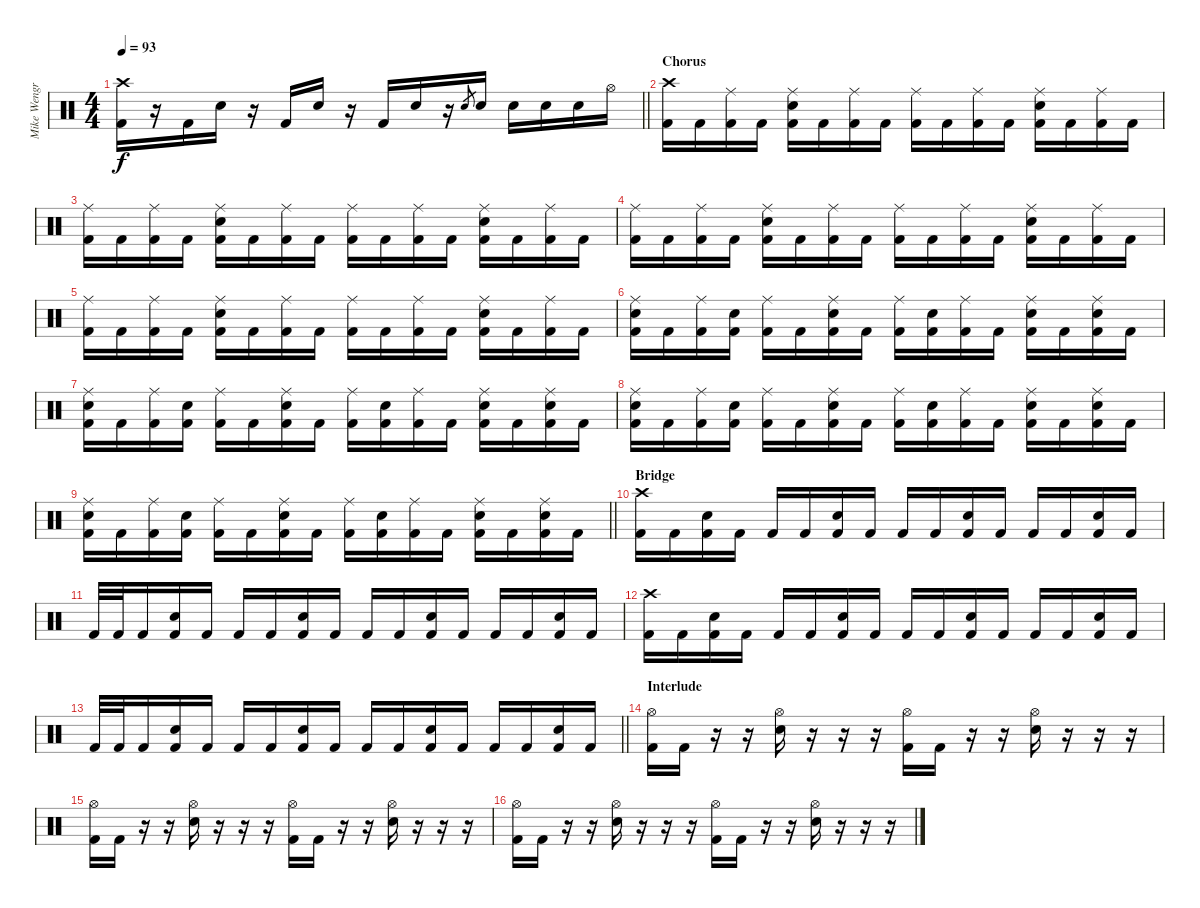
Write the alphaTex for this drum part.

\track ("Mike Wengren" "Mike Wengr") {instrument percussion}
\staff {score}
\articulation defaults
\ts (4 4)
\tempo 93
\clef neutral
\barLineRight lightlight
\ks c
("Crash high (hit)" "Kick (hit) 2").16{dy f} r.16 "Kick (hit) 2".16 "Electric Snare (hit)".16 r.16 "Kick (hit) 2".16 "Electric Snare (hit)".16 r.16 "Kick (hit) 2".16 "Electric Snare (hit)".16 r.16 "Electric Snare (hit)".8{gr} "Electric Snare (hit)".16 "Electric Snare (hit)".16 "Electric Snare (hit)".16 "Electric Snare (hit)".16 "Hi-Hat (open)".16 |
\section ("" "Chorus")
("Crash high (hit)" "Kick (hit) 2").16 "Kick (hit) 2".16 ("Ride (middle)" "Kick (hit) 2").16 "Kick (hit) 2".16 ("Ride (middle)" "Electric Snare (hit)" "Kick (hit) 2").16 "Kick (hit) 2".16 ("Ride (middle)" "Kick (hit) 2").16 "Kick (hit) 2".16 ("Ride (middle)" "Kick (hit) 2").16 "Kick (hit) 2".16 ("Ride (middle)" "Kick (hit) 2").16 "Kick (hit) 2".16 ("Ride (middle)" "Electric Snare (hit)" "Kick (hit) 2").16 "Kick (hit) 2".16 ("Ride (middle)" "Kick (hit) 2").16 "Kick (hit) 2".16 |
("Ride (middle)" "Kick (hit) 2").16 "Kick (hit) 2".16 ("Ride (middle)" "Kick (hit) 2").16 "Kick (hit) 2".16 ("Ride (middle)" "Electric Snare (hit)" "Kick (hit) 2").16 "Kick (hit) 2".16 ("Ride (middle)" "Kick (hit) 2").16 "Kick (hit) 2".16 ("Ride (middle)" "Kick (hit) 2").16 "Kick (hit) 2".16 ("Ride (middle)" "Kick (hit) 2").16 "Kick (hit) 2".16 ("Ride (middle)" "Electric Snare (hit)" "Kick (hit) 2").16 "Kick (hit) 2".16 ("Ride (middle)" "Kick (hit) 2").16 "Kick (hit) 2".16 |
("Ride (middle)" "Kick (hit) 2").16 "Kick (hit) 2".16 ("Ride (middle)" "Kick (hit) 2").16 "Kick (hit) 2".16 ("Ride (middle)" "Electric Snare (hit)" "Kick (hit) 2").16 "Kick (hit) 2".16 ("Ride (middle)" "Kick (hit) 2").16 "Kick (hit) 2".16 ("Ride (middle)" "Kick (hit) 2").16 "Kick (hit) 2".16 ("Ride (middle)" "Kick (hit) 2").16 "Kick (hit) 2".16 ("Ride (middle)" "Electric Snare (hit)" "Kick (hit) 2").16 "Kick (hit) 2".16 ("Ride (middle)" "Kick (hit) 2").16 "Kick (hit) 2".16 |
("Ride (middle)" "Kick (hit) 2").16 "Kick (hit) 2".16 ("Ride (middle)" "Kick (hit) 2").16 "Kick (hit) 2".16 ("Ride (middle)" "Electric Snare (hit)" "Kick (hit) 2").16 "Kick (hit) 2".16 ("Ride (middle)" "Kick (hit) 2").16 "Kick (hit) 2".16 ("Ride (middle)" "Kick (hit) 2").16 "Kick (hit) 2".16 ("Ride (middle)" "Kick (hit) 2").16 "Kick (hit) 2".16 ("Ride (middle)" "Electric Snare (hit)" "Kick (hit) 2").16 "Kick (hit) 2".16 ("Ride (middle)" "Kick (hit) 2").16 "Kick (hit) 2".16 |
("Ride (middle)" "Electric Snare (hit)" "Kick (hit) 2").16 "Kick (hit) 2".16 ("Ride (middle)" "Kick (hit) 2").16 ("Electric Snare (hit)" "Kick (hit) 2").16 ("Ride (middle)" "Kick (hit) 2").16 "Kick (hit) 2".16 ("Ride (middle)" "Electric Snare (hit)" "Kick (hit) 2").16 "Kick (hit) 2".16 ("Ride (middle)" "Kick (hit) 2").16 ("Electric Snare (hit)" "Kick (hit) 2").16 ("Ride (middle)" "Kick (hit) 2").16 "Kick (hit) 2".16 ("Ride (middle)" "Electric Snare (hit)" "Kick (hit) 2").16 "Kick (hit) 2".16 ("Ride (middle)" "Electric Snare (hit)" "Kick (hit) 2").16 "Kick (hit) 2".16 |
("Ride (middle)" "Electric Snare (hit)" "Kick (hit) 2").16 "Kick (hit) 2".16 ("Ride (middle)" "Kick (hit) 2").16 ("Electric Snare (hit)" "Kick (hit) 2").16 ("Ride (middle)" "Kick (hit) 2").16 "Kick (hit) 2".16 ("Ride (middle)" "Electric Snare (hit)" "Kick (hit) 2").16 "Kick (hit) 2".16 ("Ride (middle)" "Kick (hit) 2").16 ("Electric Snare (hit)" "Kick (hit) 2").16 ("Ride (middle)" "Kick (hit) 2").16 "Kick (hit) 2".16 ("Ride (middle)" "Electric Snare (hit)" "Kick (hit) 2").16 "Kick (hit) 2".16 ("Ride (middle)" "Electric Snare (hit)" "Kick (hit) 2").16 "Kick (hit) 2".16 |
("Ride (middle)" "Electric Snare (hit)" "Kick (hit) 2").16 "Kick (hit) 2".16 ("Ride (middle)" "Kick (hit) 2").16 ("Electric Snare (hit)" "Kick (hit) 2").16 ("Ride (middle)" "Kick (hit) 2").16 "Kick (hit) 2".16 ("Ride (middle)" "Electric Snare (hit)" "Kick (hit) 2").16 "Kick (hit) 2".16 ("Ride (middle)" "Kick (hit) 2").16 ("Electric Snare (hit)" "Kick (hit) 2").16 ("Ride (middle)" "Kick (hit) 2").16 "Kick (hit) 2".16 ("Ride (middle)" "Electric Snare (hit)" "Kick (hit) 2").16 "Kick (hit) 2".16 ("Ride (middle)" "Electric Snare (hit)" "Kick (hit) 2").16 "Kick (hit) 2".16 |
\barLineRight lightlight
("Ride (middle)" "Electric Snare (hit)" "Kick (hit) 2").16 "Kick (hit) 2".16 ("Ride (middle)" "Kick (hit) 2").16 ("Electric Snare (hit)" "Kick (hit) 2").16 ("Ride (middle)" "Kick (hit) 2").16 "Kick (hit) 2".16 ("Ride (middle)" "Electric Snare (hit)" "Kick (hit) 2").16 "Kick (hit) 2".16 ("Ride (middle)" "Kick (hit) 2").16 ("Electric Snare (hit)" "Kick (hit) 2").16 ("Ride (middle)" "Kick (hit) 2").16 "Kick (hit) 2".16 ("Ride (middle)" "Electric Snare (hit)" "Kick (hit) 2").16 "Kick (hit) 2".16 ("Ride (middle)" "Electric Snare (hit)" "Kick (hit) 2").16 "Kick (hit) 2".16 |
\section ("" "Bridge")
("Crash high (hit)" "Kick (hit) 2").16 "Kick (hit) 2".16 ("Electric Snare (hit)" "Kick (hit) 2").16 "Kick (hit) 2".16 "Kick (hit) 2".16 "Kick (hit) 2".16 ("Electric Snare (hit)" "Kick (hit) 2").16 "Kick (hit) 2".16 "Kick (hit) 2".16 "Kick (hit) 2".16 ("Electric Snare (hit)" "Kick (hit) 2").16 "Kick (hit) 2".16 "Kick (hit) 2".16 "Kick (hit) 2".16 ("Electric Snare (hit)" "Kick (hit) 2").16 "Kick (hit) 2".16 |
"Kick (hit) 2".32 "Kick (hit) 2".32 "Kick (hit) 2".16 ("Electric Snare (hit)" "Kick (hit) 2").16 "Kick (hit) 2".16 "Kick (hit) 2".16 "Kick (hit) 2".16 ("Electric Snare (hit)" "Kick (hit) 2").16 "Kick (hit) 2".16 "Kick (hit) 2".16 "Kick (hit) 2".16 ("Electric Snare (hit)" "Kick (hit) 2").16 "Kick (hit) 2".16 "Kick (hit) 2".16 "Kick (hit) 2".16 ("Electric Snare (hit)" "Kick (hit) 2").16 "Kick (hit) 2".16 |
("Crash high (hit)" "Kick (hit) 2").16 "Kick (hit) 2".16 ("Electric Snare (hit)" "Kick (hit) 2").16 "Kick (hit) 2".16 "Kick (hit) 2".16 "Kick (hit) 2".16 ("Electric Snare (hit)" "Kick (hit) 2").16 "Kick (hit) 2".16 "Kick (hit) 2".16 "Kick (hit) 2".16 ("Electric Snare (hit)" "Kick (hit) 2").16 "Kick (hit) 2".16 "Kick (hit) 2".16 "Kick (hit) 2".16 ("Electric Snare (hit)" "Kick (hit) 2").16 "Kick (hit) 2".16 |
\barLineRight lightlight "Kick (hit) 2".32 "Kick (hit) 2".32 "Kick (hit) 2".16
("Electric Snare (hit)" "Kick (hit) 2").16 "Kick (hit) 2".16 "Kick (hit) 2".16 "Kick (hit) 2".16 ("Electric Snare (hit)" "Kick (hit) 2").16 "Kick (hit) 2".16 "Kick (hit) 2".16 "Kick (hit) 2".16 ("Electric Snare (hit)" "Kick (hit) 2").16 "Kick (hit) 2".16 "Kick (hit) 2".16 "Kick (hit) 2".16 ("Electric Snare (hit)" "Kick (hit) 2").16 "Kick (hit) 2".16 |
\section ("" "Interlude")
("Hi-Hat (open)" "Kick (hit) 2").16 "Kick (hit) 2".16 r.16 r.16 ("Hi-Hat (open)" "Electric Snare (hit)").16 r.16 r.16 r.16 ("Hi-Hat (open)" "Kick (hit) 2").16 "Kick (hit) 2".16 r.16 r.16 ("Hi-Hat (open)" "Electric Snare (hit)").16 r.16 r.16 r.16 |
("Hi-Hat (open)" "Kick (hit) 2").16 "Kick (hit) 2".16 r.16 r.16 ("Hi-Hat (open)" "Electric Snare (hit)").16 r.16 r.16 r.16 ("Hi-Hat (open)" "Kick (hit) 2").16 "Kick (hit) 2".16 r.16 r.16 ("Hi-Hat (open)" "Electric Snare (hit)").16 r.16 r.16 r.16 |
("Hi-Hat (open)" "Kick (hit) 2").16 "Kick (hit) 2".16 r.16 r.16 ("Hi-Hat (open)" "Electric Snare (hit)").16 r.16 r.16 r.16 ("Hi-Hat (open)" "Kick (hit) 2").16 "Kick (hit) 2".16 r.16 r.16 ("Hi-Hat (open)" "Electric Snare (hit)").16 r.16 r.16 r.16
